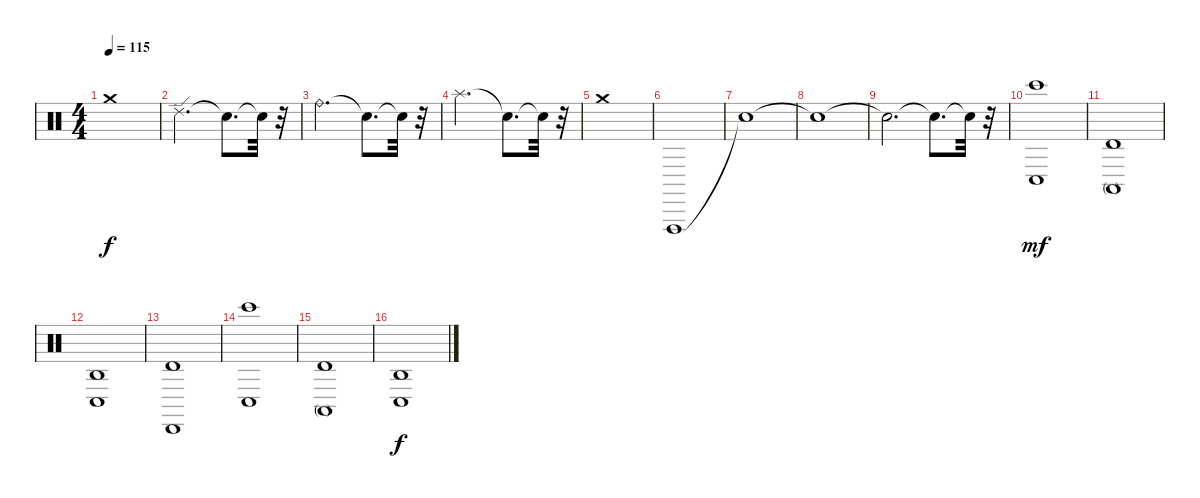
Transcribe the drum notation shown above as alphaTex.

\track "" {instrument percussion}
\staff {score}
\articulation defaults
\ts (4 4)
\tempo 115
\clef neutral
\ks c "Crash medium (hit)".1{dy f}
|
"Ride (edge) 2".2{d} "Snare (hit)"{t}.8{d} "Snare (hit)"{t}.32 r.32 |
"Ride (bell)".2{d} "Snare (hit)"{t}.8{d} "Snare (hit)"{t}.32 r.32 |
"Splash (hit)".2{d} "Snare (hit)"{t}.8{d} "Snare (hit)"{t}.32 r.32 |
"Crash medium (hit)".1 |
"Vibraslap (hit)".1 |
"Snare (hit)"{t}.1 |
"Snare (hit)"{t}.1 |
"Snare (hit)"{t}.2{d} "Snare (hit)"{t}.8{d} "Snare (hit)"{t}.32 r.32 |
("Bongo High (hit)" "Conga low (hit)").1{dy mf balance 8} |
("Timbale high (hit)" "Conga high (mute)").1 |
("Conga low (hit)" "Agogo high (hit)").1 |
("Timbale high (hit)" "Cabasa (hit)").1 |
("Bongo High (hit)" "Conga low (hit)").1 |
("Conga high (mute)" "Timbale high (hit)").1 |
("Conga low (hit)" "Agogo high (hit)").1{dy f}
